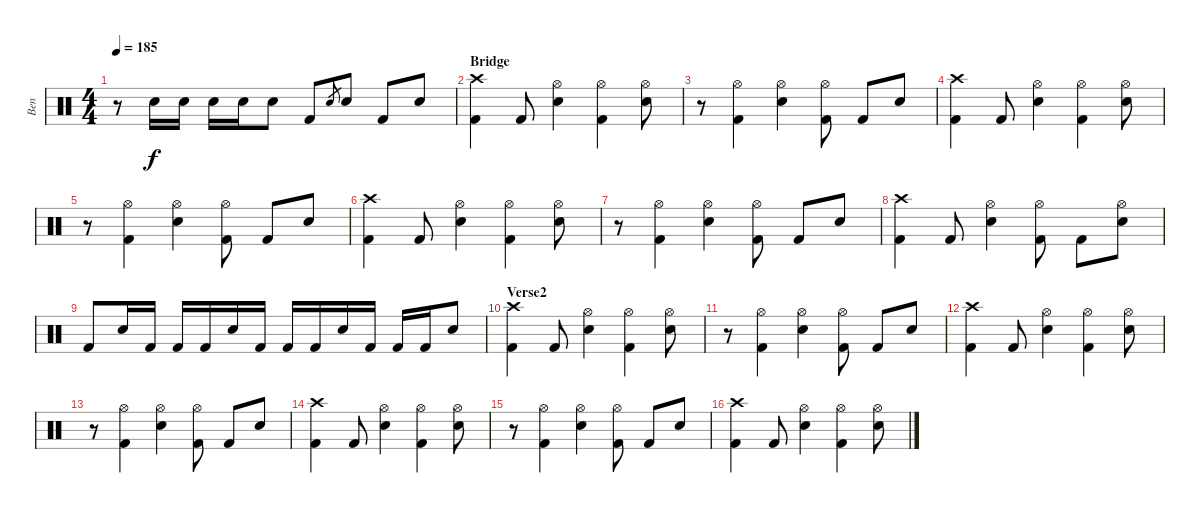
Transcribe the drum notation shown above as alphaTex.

\track ("Ben" "Ben") {instrument percussion}
\staff {score}
\articulation defaults
\ts (4 4)
\tempo 185
\clef neutral
\ks c
r.8{dy f} "Electric Snare (hit)".16 "Electric Snare (hit)".16 "Electric Snare (hit)".16 "Electric Snare (hit)".16 "Electric Snare (hit)".8 "Kick (hit) 2".8 "Electric Snare (hit)".8{gr} "Electric Snare (hit)".8 "Kick (hit) 2".8 "Electric Snare (hit)".8 |
\section ("" "Bridge")
("Crash high (hit)" "Kick (hit) 2").4 "Kick (hit) 2".8 ("Hi-Hat (open)" "Electric Snare (hit)").4 ("Hi-Hat (open)" "Kick (hit) 2").4 ("Hi-Hat (open)" "Electric Snare (hit)").8 |
r.8 ("Hi-Hat (open)" "Kick (hit) 2").4 ("Hi-Hat (open)" "Electric Snare (hit)").4 ("Hi-Hat (open)" "Kick (hit) 2").8 "Kick (hit) 2".8 "Electric Snare (hit)".8 |
("Crash high (hit)" "Kick (hit) 2").4 "Kick (hit) 2".8 ("Hi-Hat (open)" "Electric Snare (hit)").4 ("Hi-Hat (open)" "Kick (hit) 2").4 ("Hi-Hat (open)" "Electric Snare (hit)").8 |
r.8 ("Hi-Hat (open)" "Kick (hit) 2").4 ("Hi-Hat (open)" "Electric Snare (hit)").4 ("Hi-Hat (open)" "Kick (hit) 2").8 "Kick (hit) 2".8 "Electric Snare (hit)".8 |
("Crash high (hit)" "Kick (hit) 2").4 "Kick (hit) 2".8 ("Hi-Hat (open)" "Electric Snare (hit)").4 ("Hi-Hat (open)" "Kick (hit) 2").4 ("Hi-Hat (open)" "Electric Snare (hit)").8 |
r.8 ("Hi-Hat (open)" "Kick (hit) 2").4 ("Hi-Hat (open)" "Electric Snare (hit)").4 ("Hi-Hat (open)" "Kick (hit) 2").8 "Kick (hit) 2".8 "Electric Snare (hit)".8 |
("Crash high (hit)" "Kick (hit) 2").4 "Kick (hit) 2".8 ("Hi-Hat (open)" "Electric Snare (hit)").4 ("Hi-Hat (open)" "Kick (hit) 2").8 "Kick (hit) 2".8 ("Hi-Hat (open)" "Electric Snare (hit)").8 |
"Kick (hit) 2".8 "Electric Snare (hit)".16 "Kick (hit) 2".16 "Kick (hit) 2".16 "Kick (hit) 2".16 "Electric Snare (hit)".16 "Kick (hit) 2".16 "Kick (hit) 2".16 "Kick (hit) 2".16 "Electric Snare (hit)".16 "Kick (hit) 2".16 "Kick (hit) 2".16 "Kick (hit) 2".16 "Electric Snare (hit)".8 |
\section ("" "Verse2")
("Crash high (hit)" "Kick (hit) 2").4 "Kick (hit) 2".8 ("Hi-Hat (open)" "Electric Snare (hit)").4 ("Hi-Hat (open)" "Kick (hit) 2").4 ("Hi-Hat (open)" "Electric Snare (hit)").8 |
r.8 ("Hi-Hat (open)" "Kick (hit) 2").4 ("Hi-Hat (open)" "Electric Snare (hit)").4 ("Hi-Hat (open)" "Kick (hit) 2").8 "Kick (hit) 2".8 "Electric Snare (hit)".8 |
("Crash high (hit)" "Kick (hit) 2").4 "Kick (hit) 2".8 ("Hi-Hat (open)" "Electric Snare (hit)").4 ("Hi-Hat (open)" "Kick (hit) 2").4 ("Hi-Hat (open)" "Electric Snare (hit)").8 |
r.8 ("Hi-Hat (open)" "Kick (hit) 2").4 ("Hi-Hat (open)" "Electric Snare (hit)").4 ("Hi-Hat (open)" "Kick (hit) 2").8 "Kick (hit) 2".8 "Electric Snare (hit)".8 |
("Crash high (hit)" "Kick (hit) 2").4 "Kick (hit) 2".8 ("Hi-Hat (open)" "Electric Snare (hit)").4 ("Hi-Hat (open)" "Kick (hit) 2").4 ("Hi-Hat (open)" "Electric Snare (hit)").8 |
r.8 ("Hi-Hat (open)" "Kick (hit) 2").4 ("Hi-Hat (open)" "Electric Snare (hit)").4 ("Hi-Hat (open)" "Kick (hit) 2").8 "Kick (hit) 2".8 "Electric Snare (hit)".8 |
("Crash high (hit)" "Kick (hit) 2").4 "Kick (hit) 2".8 ("Hi-Hat (open)" "Electric Snare (hit)").4 ("Hi-Hat (open)" "Kick (hit) 2").4 ("Hi-Hat (open)" "Electric Snare (hit)").8
